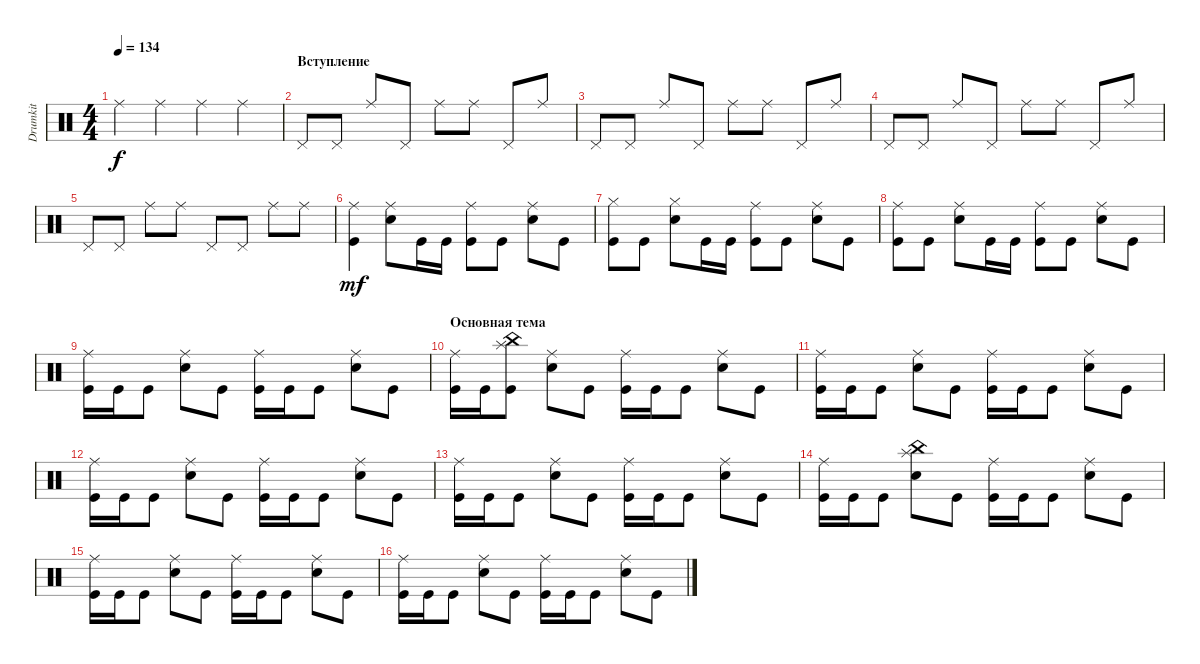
\track ("Drumkit" "Drumkit") {instrument percussion}
\staff {score}
\articulation defaults
\ts (4 4)
\tempo 134
\clef neutral
\ks c "Ride (middle)".4{dy f} "Ride (middle)".4 "Ride (middle)".4 "Ride (middle)".4
|
\section ("" "Вступление")
"Pedal Hi-Hat (hit)".8 "Pedal Hi-Hat (hit)".8 "Ride (middle)".8 "Pedal Hi-Hat (hit)".8 "Ride (middle)".8 "Ride (middle)".8 "Pedal Hi-Hat (hit)".8 "Ride (middle)".8 |
"Pedal Hi-Hat (hit)".8 "Pedal Hi-Hat (hit)".8 "Ride (middle)".8 "Pedal Hi-Hat (hit)".8 "Ride (middle)".8 "Ride (middle)".8 "Pedal Hi-Hat (hit)".8 "Ride (middle)".8 |
"Pedal Hi-Hat (hit)".8 "Pedal Hi-Hat (hit)".8 "Ride (middle)".8 "Pedal Hi-Hat (hit)".8 "Ride (middle)".8 "Ride (middle)".8 "Pedal Hi-Hat (hit)".8 "Ride (middle)".8 |
"Pedal Hi-Hat (hit)".8 "Pedal Hi-Hat (hit)".8 "Ride (middle)".8 "Ride (middle)".8 "Pedal Hi-Hat (hit)".8 "Pedal Hi-Hat (hit)".8 "Ride (middle)".8 "Ride (middle)".8 |
("Kick (hit)" "Ride (middle)").4{dy mf} ("Snare (hit) 2" "Ride (middle)").8 "Kick (hit)".16 "Kick (hit)".16 ("Kick (hit)" "Ride (middle)").8 "Kick (hit)".8 ("Snare (hit) 2" "Ride (middle)").8 "Kick (hit)".8 |
("Kick (hit)" "Hi-Hat (closed)").8 "Kick (hit)".8 ("Snare (hit) 2" "Hi-Hat (closed)").8 "Kick (hit)".16 "Kick (hit)".16 ("Kick (hit)" "Ride (middle)").8 "Kick (hit)".8 ("Snare (hit) 2" "Ride (middle)").8 "Kick (hit)".8 |
("Kick (hit)" "Ride (middle)").8 "Kick (hit)".8 ("Snare (hit) 2" "Ride (middle)").8 "Kick (hit)".16 "Kick (hit)".16 ("Kick (hit)" "Ride (middle)").8 "Kick (hit)".8 ("Snare (hit) 2" "Ride (middle)").8 "Kick (hit)".8 |
("Kick (hit)" "Ride (middle)").16 "Kick (hit)".16 "Kick (hit)".8 ("Snare (hit) 2" "Ride (middle)").8 "Kick (hit)".8 ("Kick (hit)" "Ride (middle)").16 "Kick (hit)".16 "Kick (hit)".8 ("Snare (hit) 2" "Ride (middle)").8 "Kick (hit)".8 |
\section ("" "Основная тема")
("Kick (hit)" "Ride (middle)").16 "Kick (hit)".16 ("Kick (hit)" "China (hit)" "Splash (hit)").8 ("Snare (hit) 2" "Ride (middle)").8 "Kick (hit)".8 ("Kick (hit)" "Ride (middle)").16 "Kick (hit)".16 "Kick (hit)".8 ("Snare (hit) 2" "Ride (middle)").8 "Kick (hit)".8 |
("Kick (hit)" "Ride (middle)").16 "Kick (hit)".16 "Kick (hit)".8 ("Snare (hit) 2" "Ride (middle)").8 "Kick (hit)".8 ("Kick (hit)" "Ride (middle)").16 "Kick (hit)".16 "Kick (hit)".8 ("Snare (hit) 2" "Ride (middle)").8 "Kick (hit)".8 |
("Kick (hit)" "Ride (middle)").16 "Kick (hit)".16 "Kick (hit)".8 ("Snare (hit) 2" "Ride (middle)").8 "Kick (hit)".8 ("Kick (hit)" "Ride (middle)").16 "Kick (hit)".16 "Kick (hit)".8 ("Snare (hit) 2" "Ride (middle)").8 "Kick (hit)".8 |
("Kick (hit)" "Ride (middle)").16 "Kick (hit)".16 "Kick (hit)".8 ("Snare (hit) 2" "Ride (middle)").8 "Kick (hit)".8 ("Kick (hit)" "Ride (middle)").16 "Kick (hit)".16 "Kick (hit)".8 ("Snare (hit) 2" "Ride (middle)").8 "Kick (hit)".8 |
("Kick (hit)" "Ride (middle)").16 "Kick (hit)".16 "Kick (hit)".8 ("Snare (hit) 2" "China (hit)" "Splash (hit)").8 "Kick (hit)".8 ("Kick (hit)" "Ride (middle)").16 "Kick (hit)".16 "Kick (hit)".8 ("Snare (hit) 2" "Ride (middle)").8 "Kick (hit)".8 |
("Kick (hit)" "Ride (middle)").16 "Kick (hit)".16 "Kick (hit)".8 ("Snare (hit) 2" "Ride (middle)").8 "Kick (hit)".8 ("Kick (hit)" "Ride (middle)").16 "Kick (hit)".16 "Kick (hit)".8 ("Snare (hit) 2" "Ride (middle)").8 "Kick (hit)".8 |
("Kick (hit)" "Ride (middle)").16 "Kick (hit)".16 "Kick (hit)".8 ("Snare (hit) 2" "Ride (middle)").8 "Kick (hit)".8 ("Kick (hit)" "Ride (middle)").16 "Kick (hit)".16 "Kick (hit)".8 ("Snare (hit) 2" "Ride (middle)").8 "Kick (hit)".8
